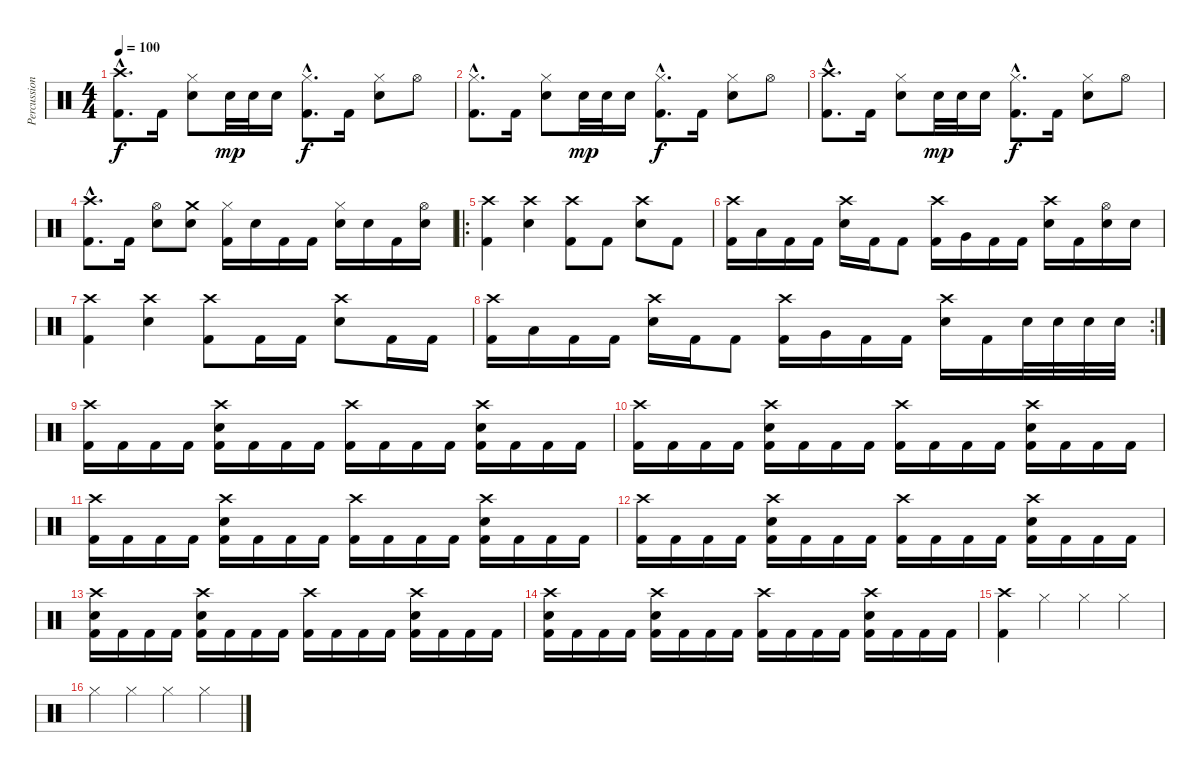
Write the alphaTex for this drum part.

\track ("Percussions" "Percussion") {instrument percussion}
\staff {score}
\articulation defaults
\ts (4 4)
\tempo 100
\clef neutral
\ks c
("Crash high (hit)"{hac} "Kick (hit) 2"{hac}).8{d dy f} "Kick (hit) 2".16 ("Hi-Hat (closed)" "Snare (hit) 2").8 "Snare (hit) 2".32{dy mp} "Snare (hit) 2".32 "Snare (hit) 2".16 ("Hi-Hat (closed)"{hac} "Kick (hit) 2"{hac}).8{d dy f} "Kick (hit) 2".16 ("Hi-Hat (closed)" "Snare (hit) 2").8 "Hi-Hat (open)".8 |
("Hi-Hat (closed)"{hac} "Kick (hit) 2"{hac}).8{d} "Kick (hit) 2".16 ("Hi-Hat (closed)" "Snare (hit) 2").8 "Snare (hit) 2".32{dy mp} "Snare (hit) 2".32 "Snare (hit) 2".16 ("Hi-Hat (closed)"{hac} "Kick (hit) 2"{hac}).8{d dy f} "Kick (hit) 2".16 ("Hi-Hat (closed)" "Snare (hit) 2").8 "Hi-Hat (open)".8 |
("Crash high (hit)"{hac} "Kick (hit) 2"{hac}).8{d} "Kick (hit) 2".16 ("Hi-Hat (closed)" "Snare (hit) 2").8 "Snare (hit) 2".32{dy mp} "Snare (hit) 2".32 "Snare (hit) 2".16 ("Hi-Hat (closed)"{hac} "Kick (hit) 2"{hac}).8{d dy f} "Kick (hit) 2".16 ("Hi-Hat (closed)" "Snare (hit) 2").8 "Hi-Hat (open)".8 |
("Crash high (hit)"{hac} "Kick (hit) 2"{hac}).8{d} "Kick (hit) 2".16 ("Hi-Hat (open)" "Snare (hit) 2").8 ("Crash medium (hit)" "Snare (hit) 2").8 ("Hi-Hat (closed)" "Kick (hit) 2").16 "Snare (hit) 2".16 "Kick (hit) 2".16 "Kick (hit) 2".16 ("Hi-Hat (closed)" "Snare (hit) 2").16 "Snare (hit) 2".16 "Kick (hit) 2".16 ("Hi-Hat (open)" "Snare (hit) 2").16 |
\ro
("Crash high (hit)" "Kick (hit) 2").4 ("Crash high (hit)" "Snare (hit) 2").4 ("Crash high (hit)" "Kick (hit) 2").8 "Kick (hit) 2".8 ("Crash high (hit)" "Snare (hit) 2").8 "Kick (hit) 2".8 |
("Crash high (hit)" "Kick (hit) 2").16 "Low Tom (hit)".16 "Kick (hit) 2".16 "Kick (hit) 2".16 ("Crash high (hit)" "Snare (hit) 2").16 "Kick (hit) 2".16 "Kick (hit) 2".8 ("Crash high (hit)" "Kick (hit) 2").16 "Very Low Tom (hit)".16 "Kick (hit) 2".16 "Kick (hit) 2".16 ("Crash high (hit)" "Snare (hit) 2").16 "Kick (hit) 2".16 ("Hi-Hat (open)" "Snare (hit) 2").16 "Snare (hit) 2".16 |
("Crash high (hit)" "Kick (hit) 2").4 ("Crash high (hit)" "Snare (hit) 2").4 ("Crash high (hit)" "Kick (hit) 2").8 "Kick (hit) 2".16 "Kick (hit) 2".16 ("Crash high (hit)" "Snare (hit) 2").8 "Kick (hit) 2".16 "Kick (hit) 2".16 |
\rc 2
("Crash high (hit)" "Kick (hit) 2").16 "Low Tom (hit)".16 "Kick (hit) 2".16 "Kick (hit) 2".16 ("Crash high (hit)" "Snare (hit) 2").16 "Kick (hit) 2".16 "Kick (hit) 2".8 ("Crash high (hit)" "Kick (hit) 2").16 "Very Low Tom (hit)".16 "Kick (hit) 2".16 "Kick (hit) 2".16 ("Crash high (hit)" "Snare (hit) 2").16 "Kick (hit) 2".16 "Snare (hit) 2".32 "Snare (hit) 2".32 "Snare (hit) 2".32 "Snare (hit) 2".32 |
("Crash high (hit)" "Kick (hit) 2").16 "Kick (hit) 2".16 "Kick (hit) 2".16 "Kick (hit) 2".16 ("Crash high (hit)" "Snare (hit) 2" "Kick (hit) 2").16 "Kick (hit) 2".16 "Kick (hit) 2".16 "Kick (hit) 2".16 ("Crash high (hit)" "Kick (hit) 2").16 "Kick (hit) 2".16 "Kick (hit) 2".16 "Kick (hit) 2".16 ("Crash high (hit)" "Snare (hit) 2" "Kick (hit) 2").16 "Kick (hit) 2".16 "Kick (hit) 2".16 "Kick (hit) 2".16 |
("Crash high (hit)" "Kick (hit) 2").16 "Kick (hit) 2".16 "Kick (hit) 2".16 "Kick (hit) 2".16 ("Crash high (hit)" "Snare (hit) 2" "Kick (hit) 2").16 "Kick (hit) 2".16 "Kick (hit) 2".16 "Kick (hit) 2".16 ("Crash high (hit)" "Kick (hit) 2").16 "Kick (hit) 2".16 "Kick (hit) 2".16 "Kick (hit) 2".16 ("Crash high (hit)" "Snare (hit) 2" "Kick (hit) 2").16 "Kick (hit) 2".16 "Kick (hit) 2".16 "Kick (hit) 2".16 |
("Crash high (hit)" "Kick (hit) 2").16 "Kick (hit) 2".16 "Kick (hit) 2".16 "Kick (hit) 2".16 ("Crash high (hit)" "Snare (hit) 2" "Kick (hit) 2").16 "Kick (hit) 2".16 "Kick (hit) 2".16 "Kick (hit) 2".16 ("Crash high (hit)" "Kick (hit) 2").16 "Kick (hit) 2".16 "Kick (hit) 2".16 "Kick (hit) 2".16 ("Crash high (hit)" "Snare (hit) 2" "Kick (hit) 2").16 "Kick (hit) 2".16 "Kick (hit) 2".16 "Kick (hit) 2".16 |
("Crash high (hit)" "Kick (hit) 2").16 "Kick (hit) 2".16 "Kick (hit) 2".16 "Kick (hit) 2".16 ("Crash high (hit)" "Snare (hit) 2" "Kick (hit) 2").16 "Kick (hit) 2".16 "Kick (hit) 2".16 "Kick (hit) 2".16 ("Crash high (hit)" "Kick (hit) 2").16 "Kick (hit) 2".16 "Kick (hit) 2".16 "Kick (hit) 2".16 ("Crash high (hit)" "Snare (hit) 2" "Kick (hit) 2").16 "Kick (hit) 2".16 "Kick (hit) 2".16 "Kick (hit) 2".16 |
("Crash high (hit)" "Snare (hit) 2" "Kick (hit) 2").16 "Kick (hit) 2".16 "Kick (hit) 2".16 "Kick (hit) 2".16 ("Crash high (hit)" "Snare (hit) 2" "Kick (hit) 2").16 "Kick (hit) 2".16 "Kick (hit) 2".16 "Kick (hit) 2".16 ("Crash high (hit)" "Kick (hit) 2").16 "Kick (hit) 2".16 "Kick (hit) 2".16 "Kick (hit) 2".16 ("Crash high (hit)" "Snare (hit) 2" "Kick (hit) 2").16 "Kick (hit) 2".16 "Kick (hit) 2".16 "Kick (hit) 2".16 |
("Crash high (hit)" "Snare (hit) 2" "Kick (hit) 2").16 "Kick (hit) 2".16 "Kick (hit) 2".16 "Kick (hit) 2".16 ("Crash high (hit)" "Snare (hit) 2" "Kick (hit) 2").16 "Kick (hit) 2".16 "Kick (hit) 2".16 "Kick (hit) 2".16 ("Crash high (hit)" "Kick (hit) 2").16 "Kick (hit) 2".16 "Kick (hit) 2".16 "Kick (hit) 2".16 ("Crash high (hit)" "Snare (hit) 2" "Kick (hit) 2").16 "Kick (hit) 2".16 "Kick (hit) 2".16 "Kick (hit) 2".16 |
("Crash high (hit)" "Kick (hit) 2").4 "Hi-Hat (closed)".4 "Hi-Hat (closed)".4 "Hi-Hat (closed)".4 |
"Hi-Hat (closed)".4 "Hi-Hat (closed)".4 "Hi-Hat (closed)".4 "Hi-Hat (closed)".4
